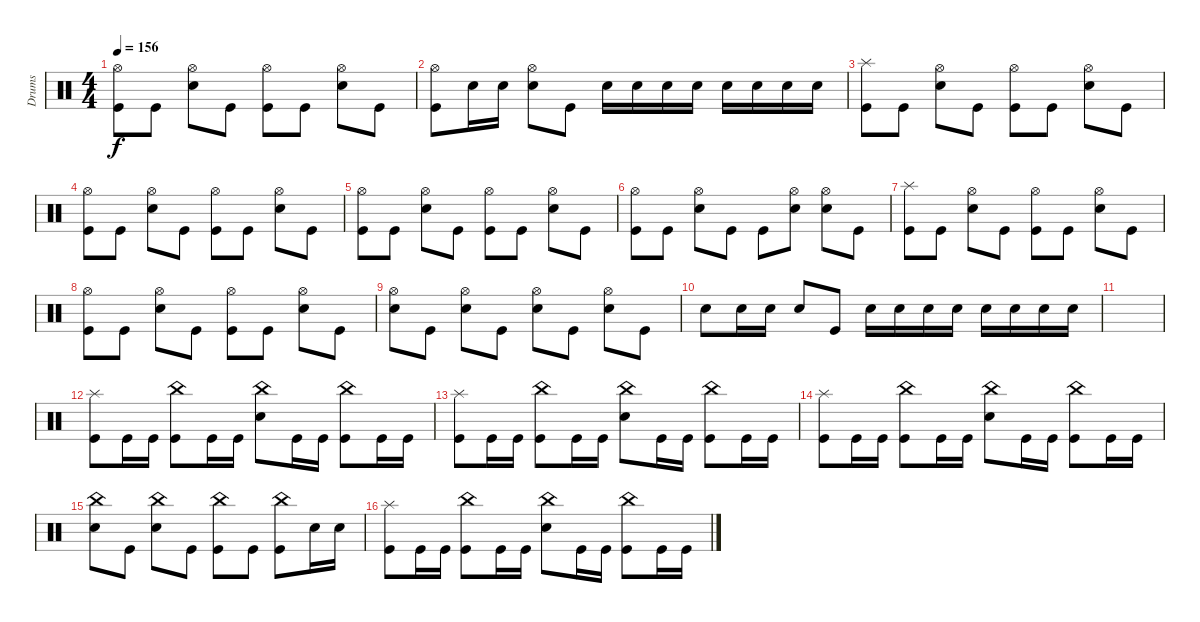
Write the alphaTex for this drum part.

\track ("Drums" "Drums") {instrument percussion}
\staff {score}
\articulation defaults
\ts (4 4)
\tempo 156
\clef neutral
\ks c
("Kick (hit)" "Hi-Hat (open)").8{dy f} "Kick (hit)".8 ("Snare (hit) 2" "Hi-Hat (open)").8 "Kick (hit)".8 ("Kick (hit)" "Hi-Hat (open)").8 "Kick (hit)".8 ("Snare (hit) 2" "Hi-Hat (open)").8 "Kick (hit)".8 |
("Kick (hit)" "Hi-Hat (open)").8 "Snare (hit) 2".16 "Snare (hit) 2".16 ("Snare (hit) 2" "Hi-Hat (open)").8 "Kick (hit)".8 "Snare (hit) 2".16 "Snare (hit) 2".16 "Snare (hit) 2".16 "Snare (hit) 2".16 "Snare (hit) 2".16 "Snare (hit) 2".16 "Snare (hit) 2".16 "Snare (hit) 2".16 |
("Kick (hit)" "Splash (hit)").8 "Kick (hit)".8 ("Snare (hit) 2" "Hi-Hat (open)").8 "Kick (hit)".8 ("Kick (hit)" "Hi-Hat (open)").8 "Kick (hit)".8 ("Snare (hit) 2" "Hi-Hat (open)").8 "Kick (hit)".8 |
("Kick (hit)" "Hi-Hat (open)").8 "Kick (hit)".8 ("Snare (hit) 2" "Hi-Hat (open)").8 "Kick (hit)".8 ("Kick (hit)" "Hi-Hat (open)").8 "Kick (hit)".8 ("Snare (hit) 2" "Hi-Hat (open)").8 "Kick (hit)".8 |
("Kick (hit)" "Hi-Hat (open)").8 "Kick (hit)".8 ("Snare (hit) 2" "Hi-Hat (open)").8 "Kick (hit)".8 ("Kick (hit)" "Hi-Hat (open)").8 "Kick (hit)".8 ("Snare (hit) 2" "Hi-Hat (open)").8 "Kick (hit)".8 |
("Kick (hit)" "Hi-Hat (open)").8 "Kick (hit)".8 ("Snare (hit) 2" "Hi-Hat (open)").8 "Kick (hit)".8 "Kick (hit)".8 ("Snare (hit) 2" "Hi-Hat (open)").8 ("Snare (hit) 2" "Hi-Hat (open)").8 "Kick (hit)".8 |
("Kick (hit)" "Splash (hit)").8 "Kick (hit)".8 ("Snare (hit) 2" "Hi-Hat (open)").8 "Kick (hit)".8 ("Kick (hit)" "Hi-Hat (open)").8 "Kick (hit)".8 ("Snare (hit) 2" "Hi-Hat (open)").8 "Kick (hit)".8 |
("Kick (hit)" "Hi-Hat (open)").8 "Kick (hit)".8 ("Snare (hit) 2" "Hi-Hat (open)").8 "Kick (hit)".8 ("Kick (hit)" "Hi-Hat (open)").8 "Kick (hit)".8 ("Snare (hit) 2" "Hi-Hat (open)").8 "Kick (hit)".8 |
("Hi-Hat (open)" "Snare (hit) 2").8 "Kick (hit)".8 ("Snare (hit) 2" "Hi-Hat (open)").8 "Kick (hit)".8 ("Snare (hit) 2" "Hi-Hat (open)").8 "Kick (hit)".8 ("Snare (hit) 2" "Hi-Hat (open)").8 "Kick (hit)".8 |
"Snare (hit) 2".8 "Snare (hit) 2".16 "Snare (hit) 2".16 "Snare (hit) 2".8 "Kick (hit)".8 "Snare (hit) 2".16 "Snare (hit) 2".16 "Snare (hit) 2".16 "Snare (hit) 2".16 "Snare (hit) 2".16 "Snare (hit) 2".16 "Snare (hit) 2".16 "Snare (hit) 2".16 |
|
("Kick (hit)" "Splash (hit)").8 "Kick (hit)".16 "Kick (hit)".16 ("China (hit)" "Kick (hit)").8 "Kick (hit)".16 "Kick (hit)".16 ("China (hit)" "Snare (hit) 2").8 "Kick (hit)".16 "Kick (hit)".16 ("China (hit)" "Kick (hit)").8 "Kick (hit)".16 "Kick (hit)".16 |
("Kick (hit)" "Splash (hit)").8 "Kick (hit)".16 "Kick (hit)".16 ("China (hit)" "Kick (hit)").8 "Kick (hit)".16 "Kick (hit)".16 ("China (hit)" "Snare (hit) 2").8 "Kick (hit)".16 "Kick (hit)".16 ("China (hit)" "Kick (hit)").8 "Kick (hit)".16 "Kick (hit)".16 |
("Kick (hit)" "Splash (hit)").8 "Kick (hit)".16 "Kick (hit)".16 ("China (hit)" "Kick (hit)").8 "Kick (hit)".16 "Kick (hit)".16 ("China (hit)" "Snare (hit) 2").8 "Kick (hit)".16 "Kick (hit)".16 ("China (hit)" "Kick (hit)").8 "Kick (hit)".16 "Kick (hit)".16 |
("China (hit)" "Snare (hit) 2").8 "Kick (hit)".8 ("China (hit)" "Snare (hit) 2").8 "Kick (hit)".8 ("China (hit)" "Kick (hit)").8 "Kick (hit)".8 ("China (hit)" "Kick (hit)").8 "Snare (hit) 2".16 "Snare (hit) 2".16 |
("Kick (hit)" "Splash (hit)").8 "Kick (hit)".16 "Kick (hit)".16 ("China (hit)" "Kick (hit)").8 "Kick (hit)".16 "Kick (hit)".16 ("China (hit)" "Snare (hit) 2").8 "Kick (hit)".16 "Kick (hit)".16 ("China (hit)" "Kick (hit)").8 "Kick (hit)".16 "Kick (hit)".16
